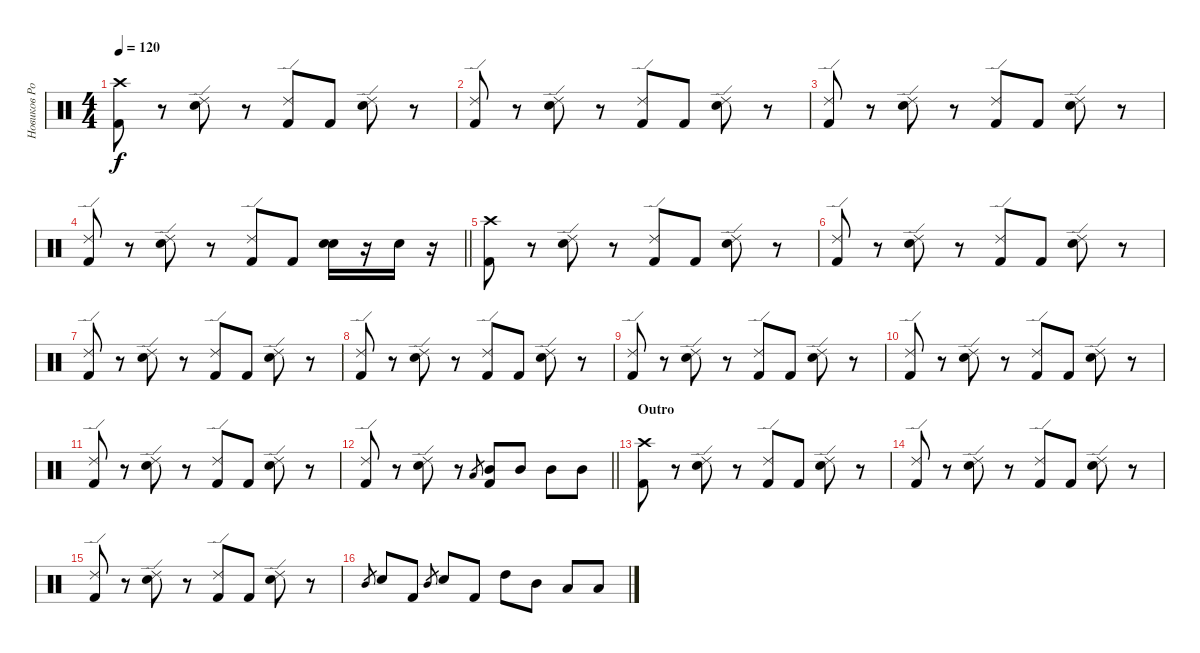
\track ("Новиков Роман  ( Ударные )" "Новиков Ро") {instrument percussion}
\staff {score}
\articulation defaults
\ts (4 4)
\tempo 120
\clef neutral
\ks c
("Crash high (hit)" "Kick (hit) 2").8{dy f} r.8 ("Ride (edge) 2" "Electric Snare (hit)").8 r.8 ("Ride (edge) 2" "Kick (hit) 2").8 "Kick (hit) 2".8 ("Ride (edge) 2" "Electric Snare (hit)").8 r.8 |
("Ride (edge) 2" "Kick (hit) 2").8 r.8 ("Ride (edge) 2" "Electric Snare (hit)").8 r.8 ("Ride (edge) 2" "Kick (hit) 2").8 "Kick (hit) 2".8 ("Ride (edge) 2" "Electric Snare (hit)").8 r.8 |
("Ride (edge) 2" "Kick (hit) 2").8 r.8 ("Ride (edge) 2" "Electric Snare (hit)").8 r.8 ("Ride (edge) 2" "Kick (hit) 2").8 "Kick (hit) 2".8 ("Ride (edge) 2" "Electric Snare (hit)").8 r.8 |
\barLineRight lightlight
("Ride (edge) 2" "Kick (hit) 2").8 r.8 ("Ride (edge) 2" "Electric Snare (hit)").8 r.8 ("Ride (edge) 2" "Kick (hit) 2").8 "Kick (hit) 2".8 ("Snare (hit) 2" "Electric Snare (hit)").16 r.16 "Snare (hit) 2".16 r.16 |
("Crash high (hit)" "Kick (hit) 2").8 r.8 ("Ride (edge) 2" "Electric Snare (hit)").8 r.8 ("Ride (edge) 2" "Kick (hit) 2").8 "Kick (hit) 2".8 ("Ride (edge) 2" "Electric Snare (hit)").8 r.8 |
("Ride (edge) 2" "Kick (hit) 2").8 r.8 ("Ride (edge) 2" "Electric Snare (hit)").8 r.8 ("Ride (edge) 2" "Kick (hit) 2").8 "Kick (hit) 2".8 ("Ride (edge) 2" "Electric Snare (hit)").8 r.8 |
("Ride (edge) 2" "Kick (hit) 2").8 r.8 ("Ride (edge) 2" "Electric Snare (hit)").8 r.8 ("Ride (edge) 2" "Kick (hit) 2").8 "Kick (hit) 2".8 ("Ride (edge) 2" "Electric Snare (hit)").8 r.8 |
("Ride (edge) 2" "Kick (hit) 2").8 r.8 ("Ride (edge) 2" "Electric Snare (hit)").8 r.8 ("Ride (edge) 2" "Kick (hit) 2").8 "Kick (hit) 2".8 ("Ride (edge) 2" "Electric Snare (hit)").8 r.8 |
("Ride (edge) 2" "Kick (hit) 2").8 r.8 ("Ride (edge) 2" "Electric Snare (hit)").8 r.8 ("Ride (edge) 2" "Kick (hit) 2").8 "Kick (hit) 2".8 ("Ride (edge) 2" "Electric Snare (hit)").8 r.8 |
("Ride (edge) 2" "Kick (hit) 2").8 r.8 ("Ride (edge) 2" "Electric Snare (hit)").8 r.8 ("Ride (edge) 2" "Kick (hit) 2").8 "Kick (hit) 2".8 ("Ride (edge) 2" "Electric Snare (hit)").8 r.8 |
("Ride (edge) 2" "Kick (hit) 2").8 r.8 ("Ride (edge) 2" "Electric Snare (hit)").8 r.8 ("Ride (edge) 2" "Kick (hit) 2").8 "Kick (hit) 2".8 ("Ride (edge) 2" "Electric Snare (hit)").8 r.8 |
\barLineRight lightlight
("Ride (edge) 2" "Kick (hit) 2").8 r.8 ("Ride (edge) 2" "Electric Snare (hit)").8 r.8 "Low Tom (hit)"{h}.8{gr} ("Mid Tom (hit)" "Kick (hit) 2").8 "Mid Tom (hit)".8 "Mid Tom (hit)".8 "Mid Tom (hit)".8 |
\section ("" "Outro")
("Crash high (hit)" "Kick (hit) 2").8 r.8 ("Ride (edge) 2" "Electric Snare (hit)").8 r.8 ("Ride (edge) 2" "Kick (hit) 2").8 "Kick (hit) 2".8 ("Ride (edge) 2" "Electric Snare (hit)").8 r.8 |
("Ride (edge) 2" "Kick (hit) 2").8 r.8 ("Ride (edge) 2" "Electric Snare (hit)").8 r.8 ("Ride (edge) 2" "Kick (hit) 2").8 "Kick (hit) 2".8 ("Ride (edge) 2" "Electric Snare (hit)").8 r.8 |
("Ride (edge) 2" "Kick (hit) 2").8 r.8 ("Ride (edge) 2" "Electric Snare (hit)").8 r.8 ("Ride (edge) 2" "Kick (hit) 2").8 "Kick (hit) 2".8 ("Ride (edge) 2" "Electric Snare (hit)").8 r.8 |
"Mid Tom (hit)"{h}.8{gr} "Snare (hit) 2".8 "Kick (hit) 2".8 "Mid Tom (hit)"{h}.8{gr} "Snare (hit) 2".8 "Kick (hit) 2".8 "High Tom (hit)".8 "Mid Tom (hit)".8 "Low Tom (hit)".8 "Low Floor Tom (hit)".8
